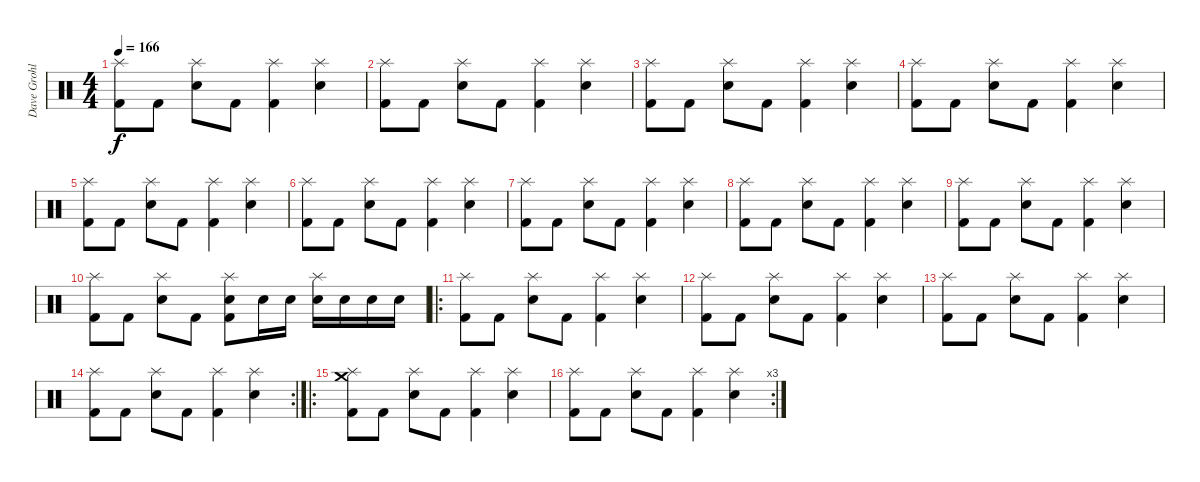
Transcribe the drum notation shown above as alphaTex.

\track ("Dave Grohl" "Dave Grohl") {instrument percussion}
\staff {score}
\articulation defaults
\ts (4 4)
\tempo 166
\clef neutral
\ks c
("Splash (hit)" "Kick (hit) 2").8{dy f} "Kick (hit) 2".8 ("Splash (hit)" "Snare (hit) 2").8 "Kick (hit) 2".8 ("Splash (hit)" "Kick (hit) 2").4 ("Splash (hit)" "Snare (hit) 2").4 |
("Splash (hit)" "Kick (hit) 2").8 "Kick (hit) 2".8 ("Splash (hit)" "Snare (hit) 2").8 "Kick (hit) 2".8 ("Splash (hit)" "Kick (hit) 2").4 ("Splash (hit)" "Snare (hit) 2").4 |
("Splash (hit)" "Kick (hit) 2").8 "Kick (hit) 2".8 ("Splash (hit)" "Snare (hit) 2").8 "Kick (hit) 2".8 ("Splash (hit)" "Kick (hit) 2").4 ("Splash (hit)" "Snare (hit) 2").4 |
("Splash (hit)" "Kick (hit) 2").8 "Kick (hit) 2".8 ("Splash (hit)" "Snare (hit) 2").8 "Kick (hit) 2".8 ("Splash (hit)" "Kick (hit) 2").4 ("Splash (hit)" "Snare (hit) 2").4 |
("Splash (hit)" "Kick (hit) 2").8 "Kick (hit) 2".8 ("Splash (hit)" "Snare (hit) 2").8 "Kick (hit) 2".8 ("Splash (hit)" "Kick (hit) 2").4 ("Splash (hit)" "Snare (hit) 2").4 |
("Splash (hit)" "Kick (hit) 2").8 "Kick (hit) 2".8 ("Splash (hit)" "Snare (hit) 2").8 "Kick (hit) 2".8 ("Splash (hit)" "Kick (hit) 2").4 ("Splash (hit)" "Snare (hit) 2").4 |
("Splash (hit)" "Kick (hit) 2").8 "Kick (hit) 2".8 ("Splash (hit)" "Snare (hit) 2").8 "Kick (hit) 2".8 ("Splash (hit)" "Kick (hit) 2").4 ("Splash (hit)" "Snare (hit) 2").4 |
("Splash (hit)" "Kick (hit) 2").8 "Kick (hit) 2".8 ("Splash (hit)" "Snare (hit) 2").8 "Kick (hit) 2".8 ("Splash (hit)" "Kick (hit) 2").4 ("Splash (hit)" "Snare (hit) 2").4 |
("Splash (hit)" "Kick (hit) 2").8 "Kick (hit) 2".8 ("Splash (hit)" "Snare (hit) 2").8 "Kick (hit) 2".8 ("Splash (hit)" "Kick (hit) 2").4 ("Splash (hit)" "Snare (hit) 2").4 |
("Splash (hit)" "Kick (hit) 2").8 "Kick (hit) 2".8 ("Splash (hit)" "Snare (hit) 2").8 "Kick (hit) 2".8 ("Splash (hit)" "Snare (hit) 2" "Kick (hit) 2").8 "Snare (hit) 2".16 "Snare (hit) 2".16 ("Splash (hit)" "Snare (hit) 2").16 "Snare (hit) 2".16 "Snare (hit) 2".16 "Snare (hit) 2".16 |
\ro
("Splash (hit)" "Kick (hit) 2").8 "Kick (hit) 2".8 ("Splash (hit)" "Snare (hit) 2").8 "Kick (hit) 2".8 ("Splash (hit)" "Kick (hit) 2").4 ("Splash (hit)" "Snare (hit) 2").4 |
("Splash (hit)" "Kick (hit) 2").8 "Kick (hit) 2".8 ("Splash (hit)" "Snare (hit) 2").8 "Kick (hit) 2".8 ("Splash (hit)" "Kick (hit) 2").4 ("Splash (hit)" "Snare (hit) 2").4 |
("Splash (hit)" "Kick (hit) 2").8 "Kick (hit) 2".8 ("Splash (hit)" "Snare (hit) 2").8 "Kick (hit) 2".8 ("Splash (hit)" "Kick (hit) 2").4 ("Splash (hit)" "Snare (hit) 2").4 |
\rc 2
("Splash (hit)" "Kick (hit) 2").8 "Kick (hit) 2".8 ("Splash (hit)" "Snare (hit) 2").8 "Kick (hit) 2".8 ("Splash (hit)" "Kick (hit) 2").4 ("Splash (hit)" "Snare (hit) 2").4 |
\ro
("Splash (hit)" "Crash medium (hit)" "Kick (hit) 2").8 "Kick (hit) 2".8 ("Splash (hit)" "Snare (hit) 2").8 "Kick (hit) 2".8 ("Splash (hit)" "Kick (hit) 2").4 ("Splash (hit)" "Snare (hit) 2").4 |
\rc 3
("Splash (hit)" "Kick (hit) 2").8 "Kick (hit) 2".8 ("Splash (hit)" "Snare (hit) 2").8 "Kick (hit) 2".8 ("Splash (hit)" "Kick (hit) 2").4 ("Splash (hit)" "Snare (hit) 2").4
